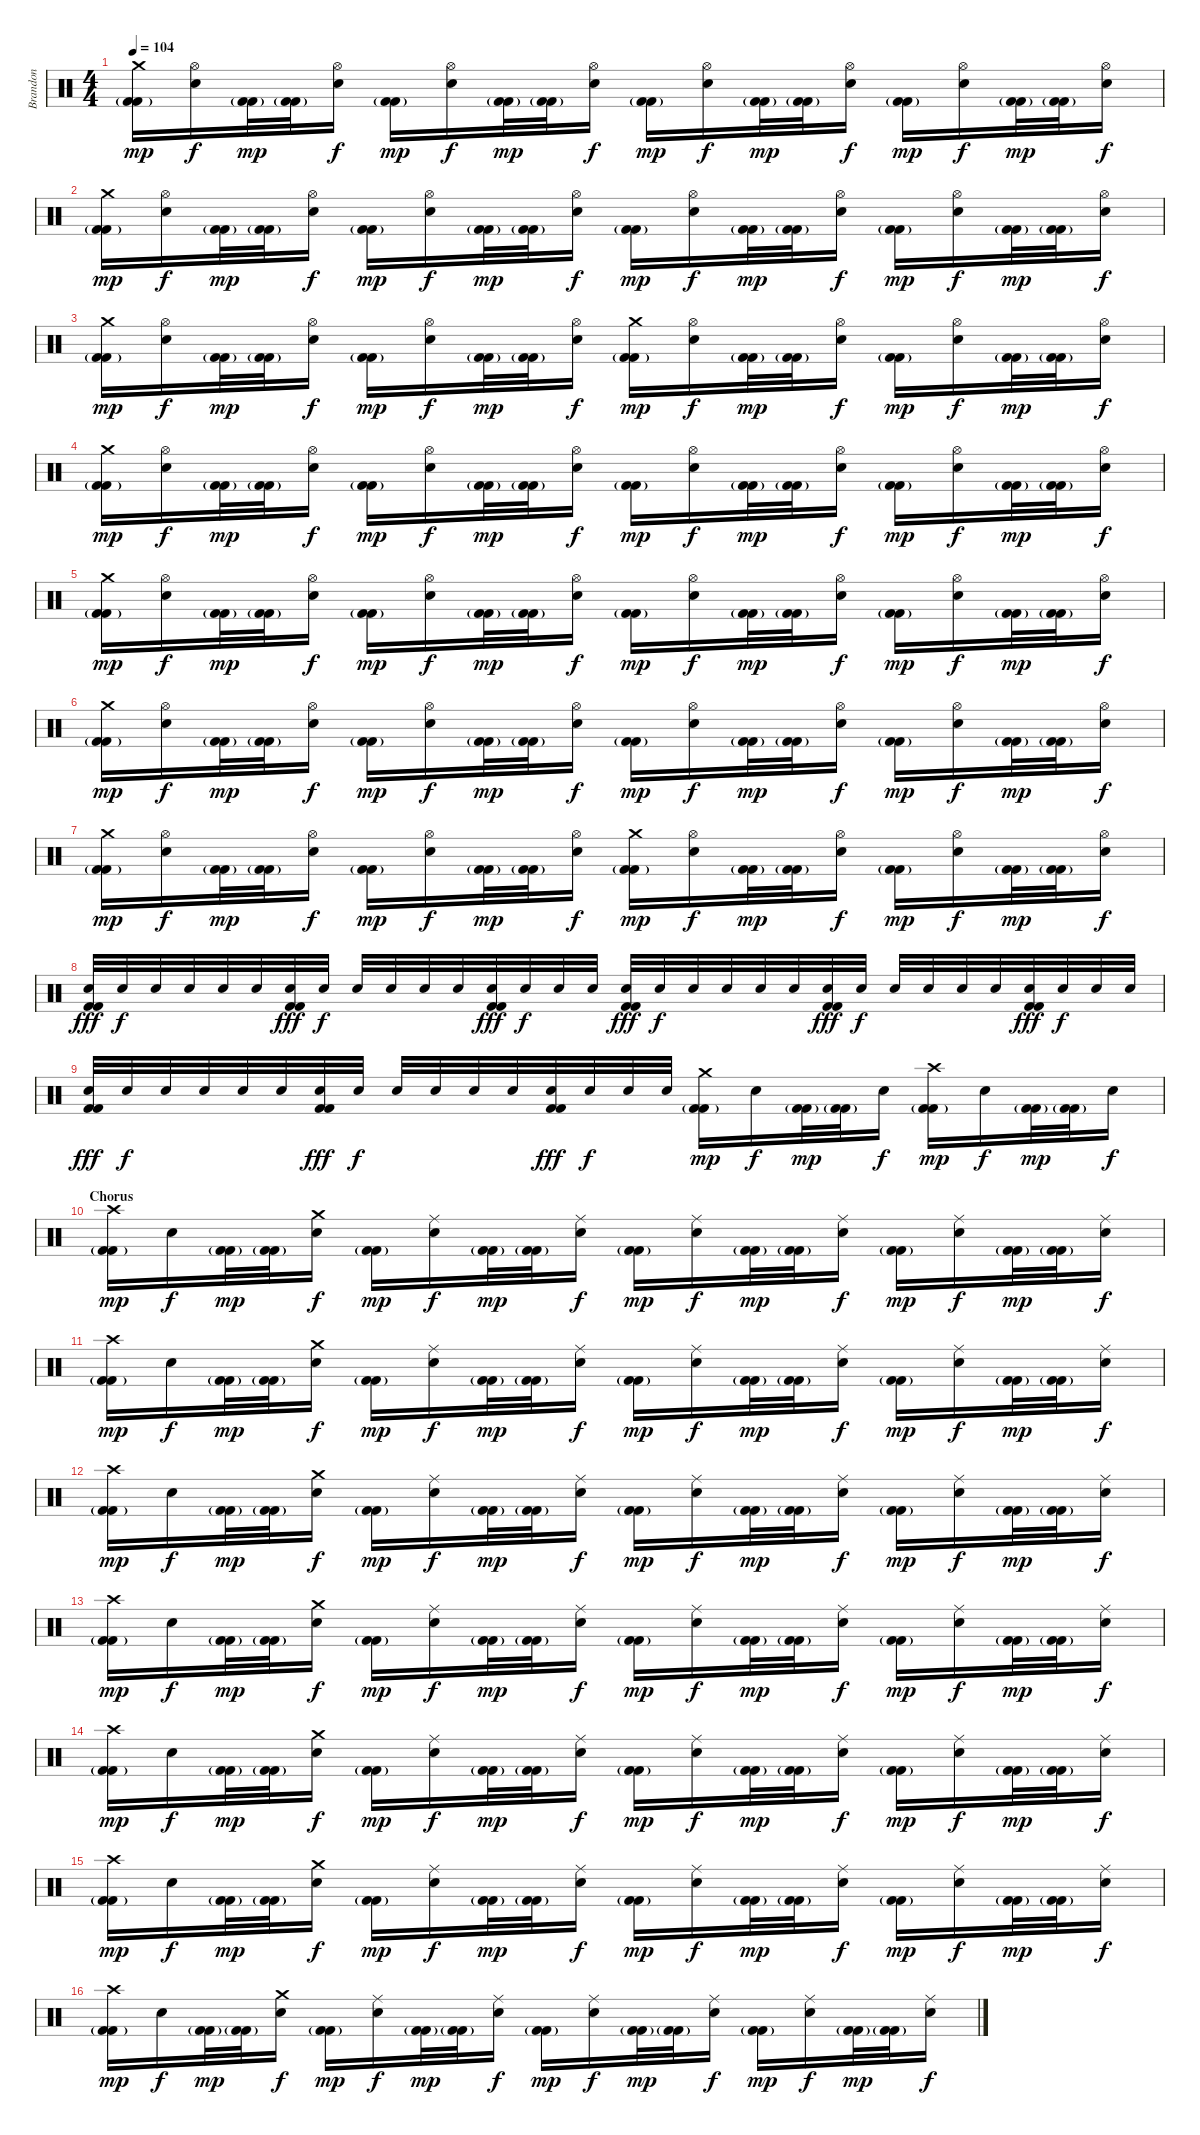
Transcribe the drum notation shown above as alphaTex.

\track ("Brandon" "Brandon") {instrument percussion}
\staff {score}
\articulation defaults
\ts (4 4)
\tempo 104
\clef neutral
\ks c
("Crash medium (hit)" "Kick (hit) 2"{g} "Kick (hit) 2").16{dy mp} ("Hi-Hat (open)" "Electric Snare (hit)").16{dy f} ("Kick (hit) 2"{g} "Kick (hit) 2").32{dy mp} ("Kick (hit) 2"{g} "Kick (hit) 2").32 ("Hi-Hat (open)" "Electric Snare (hit)").16{dy f} ("Kick (hit) 2"{g} "Kick (hit) 2").16{dy mp} ("Hi-Hat (open)" "Electric Snare (hit)").16{dy f} ("Kick (hit) 2"{g} "Kick (hit) 2").32{dy mp} ("Kick (hit) 2"{g} "Kick (hit) 2").32 ("Hi-Hat (open)" "Electric Snare (hit)").16{dy f} ("Kick (hit) 2"{g} "Kick (hit) 2").16{dy mp} ("Hi-Hat (open)" "Electric Snare (hit)").16{dy f} ("Kick (hit) 2"{g} "Kick (hit) 2").32{dy mp} ("Kick (hit) 2"{g} "Kick (hit) 2").32 ("Hi-Hat (open)" "Electric Snare (hit)").16{dy f} ("Kick (hit) 2"{g} "Kick (hit) 2").16{dy mp} ("Hi-Hat (open)" "Electric Snare (hit)").16{dy f} ("Kick (hit) 2"{g} "Kick (hit) 2").32{dy mp} ("Kick (hit) 2"{g} "Kick (hit) 2").32 ("Hi-Hat (open)" "Electric Snare (hit)").16{dy f} |
("Crash medium (hit)" "Kick (hit) 2"{g} "Kick (hit) 2").16{dy mp} ("Hi-Hat (open)" "Electric Snare (hit)").16{dy f} ("Kick (hit) 2"{g} "Kick (hit) 2").32{dy mp} ("Kick (hit) 2"{g} "Kick (hit) 2").32 ("Hi-Hat (open)" "Electric Snare (hit)").16{dy f} ("Kick (hit) 2"{g} "Kick (hit) 2").16{dy mp} ("Hi-Hat (open)" "Electric Snare (hit)").16{dy f} ("Kick (hit) 2"{g} "Kick (hit) 2").32{dy mp} ("Kick (hit) 2"{g} "Kick (hit) 2").32 ("Hi-Hat (open)" "Electric Snare (hit)").16{dy f} ("Kick (hit) 2"{g} "Kick (hit) 2").16{dy mp} ("Hi-Hat (open)" "Electric Snare (hit)").16{dy f} ("Kick (hit) 2"{g} "Kick (hit) 2").32{dy mp} ("Kick (hit) 2"{g} "Kick (hit) 2").32 ("Hi-Hat (open)" "Electric Snare (hit)").16{dy f} ("Kick (hit) 2"{g} "Kick (hit) 2").16{dy mp} ("Hi-Hat (open)" "Electric Snare (hit)").16{dy f} ("Kick (hit) 2"{g} "Kick (hit) 2").32{dy mp} ("Kick (hit) 2"{g} "Kick (hit) 2").32 ("Hi-Hat (open)" "Electric Snare (hit)").16{dy f} |
("Crash medium (hit)" "Kick (hit) 2"{g} "Kick (hit) 2").16{dy mp} ("Hi-Hat (open)" "Electric Snare (hit)").16{dy f} ("Kick (hit) 2"{g} "Kick (hit) 2").32{dy mp} ("Kick (hit) 2"{g} "Kick (hit) 2").32 ("Hi-Hat (open)" "Electric Snare (hit)").16{dy f} ("Kick (hit) 2"{g} "Kick (hit) 2").16{dy mp} ("Hi-Hat (open)" "Electric Snare (hit)").16{dy f} ("Kick (hit) 2"{g} "Kick (hit) 2").32{dy mp} ("Kick (hit) 2"{g} "Kick (hit) 2").32 ("Hi-Hat (open)" "Electric Snare (hit)").16{dy f} ("Crash medium (hit)" "Kick (hit) 2"{g} "Kick (hit) 2").16{dy mp} ("Hi-Hat (open)" "Electric Snare (hit)").16{dy f} ("Kick (hit) 2"{g} "Kick (hit) 2").32{dy mp} ("Kick (hit) 2"{g} "Kick (hit) 2").32 ("Hi-Hat (open)" "Electric Snare (hit)").16{dy f} ("Kick (hit) 2"{g} "Kick (hit) 2").16{dy mp} ("Hi-Hat (open)" "Electric Snare (hit)").16{dy f} ("Kick (hit) 2"{g} "Kick (hit) 2").32{dy mp} ("Kick (hit) 2"{g} "Kick (hit) 2").32 ("Hi-Hat (open)" "Electric Snare (hit)").16{dy f} |
("Crash medium (hit)" "Kick (hit) 2"{g} "Kick (hit) 2").16{dy mp} ("Hi-Hat (open)" "Electric Snare (hit)").16{dy f} ("Kick (hit) 2"{g} "Kick (hit) 2").32{dy mp} ("Kick (hit) 2"{g} "Kick (hit) 2").32 ("Hi-Hat (open)" "Electric Snare (hit)").16{dy f} ("Kick (hit) 2"{g} "Kick (hit) 2").16{dy mp} ("Hi-Hat (open)" "Electric Snare (hit)").16{dy f} ("Kick (hit) 2"{g} "Kick (hit) 2").32{dy mp} ("Kick (hit) 2"{g} "Kick (hit) 2").32 ("Hi-Hat (open)" "Electric Snare (hit)").16{dy f} ("Kick (hit) 2"{g} "Kick (hit) 2").16{dy mp} ("Hi-Hat (open)" "Electric Snare (hit)").16{dy f} ("Kick (hit) 2"{g} "Kick (hit) 2").32{dy mp} ("Kick (hit) 2"{g} "Kick (hit) 2").32 ("Hi-Hat (open)" "Electric Snare (hit)").16{dy f} ("Kick (hit) 2"{g} "Kick (hit) 2").16{dy mp} ("Hi-Hat (open)" "Electric Snare (hit)").16{dy f} ("Kick (hit) 2"{g} "Kick (hit) 2").32{dy mp} ("Kick (hit) 2"{g} "Kick (hit) 2").32 ("Hi-Hat (open)" "Electric Snare (hit)").16{dy f} |
("Crash medium (hit)" "Kick (hit) 2"{g} "Kick (hit) 2").16{dy mp} ("Hi-Hat (open)" "Electric Snare (hit)").16{dy f} ("Kick (hit) 2"{g} "Kick (hit) 2").32{dy mp} ("Kick (hit) 2"{g} "Kick (hit) 2").32 ("Hi-Hat (open)" "Electric Snare (hit)").16{dy f} ("Kick (hit) 2"{g} "Kick (hit) 2").16{dy mp} ("Hi-Hat (open)" "Electric Snare (hit)").16{dy f} ("Kick (hit) 2"{g} "Kick (hit) 2").32{dy mp} ("Kick (hit) 2"{g} "Kick (hit) 2").32 ("Hi-Hat (open)" "Electric Snare (hit)").16{dy f} ("Kick (hit) 2"{g} "Kick (hit) 2").16{dy mp} ("Hi-Hat (open)" "Electric Snare (hit)").16{dy f} ("Kick (hit) 2"{g} "Kick (hit) 2").32{dy mp} ("Kick (hit) 2"{g} "Kick (hit) 2").32 ("Hi-Hat (open)" "Electric Snare (hit)").16{dy f} ("Kick (hit) 2"{g} "Kick (hit) 2").16{dy mp} ("Hi-Hat (open)" "Electric Snare (hit)").16{dy f} ("Kick (hit) 2"{g} "Kick (hit) 2").32{dy mp} ("Kick (hit) 2"{g} "Kick (hit) 2").32 ("Hi-Hat (open)" "Electric Snare (hit)").16{dy f} |
("Crash medium (hit)" "Kick (hit) 2"{g} "Kick (hit) 2").16{dy mp} ("Hi-Hat (open)" "Electric Snare (hit)").16{dy f} ("Kick (hit) 2"{g} "Kick (hit) 2").32{dy mp} ("Kick (hit) 2"{g} "Kick (hit) 2").32 ("Hi-Hat (open)" "Electric Snare (hit)").16{dy f} ("Kick (hit) 2"{g} "Kick (hit) 2").16{dy mp} ("Hi-Hat (open)" "Electric Snare (hit)").16{dy f} ("Kick (hit) 2"{g} "Kick (hit) 2").32{dy mp} ("Kick (hit) 2"{g} "Kick (hit) 2").32 ("Hi-Hat (open)" "Electric Snare (hit)").16{dy f} ("Kick (hit) 2"{g} "Kick (hit) 2").16{dy mp} ("Hi-Hat (open)" "Electric Snare (hit)").16{dy f} ("Kick (hit) 2"{g} "Kick (hit) 2").32{dy mp} ("Kick (hit) 2"{g} "Kick (hit) 2").32 ("Hi-Hat (open)" "Electric Snare (hit)").16{dy f} ("Kick (hit) 2"{g} "Kick (hit) 2").16{dy mp} ("Hi-Hat (open)" "Electric Snare (hit)").16{dy f} ("Kick (hit) 2"{g} "Kick (hit) 2").32{dy mp} ("Kick (hit) 2"{g} "Kick (hit) 2").32 ("Hi-Hat (open)" "Electric Snare (hit)").16{dy f} |
("Crash medium (hit)" "Kick (hit) 2"{g} "Kick (hit) 2").16{dy mp} ("Hi-Hat (open)" "Electric Snare (hit)").16{dy f} ("Kick (hit) 2"{g} "Kick (hit) 2").32{dy mp} ("Kick (hit) 2"{g} "Kick (hit) 2").32 ("Hi-Hat (open)" "Electric Snare (hit)").16{dy f} ("Kick (hit) 2"{g} "Kick (hit) 2").16{dy mp} ("Hi-Hat (open)" "Electric Snare (hit)").16{dy f} ("Kick (hit) 2"{g} "Kick (hit) 2").32{dy mp} ("Kick (hit) 2"{g} "Kick (hit) 2").32 ("Hi-Hat (open)" "Electric Snare (hit)").16{dy f} ("Crash medium (hit)" "Kick (hit) 2"{g} "Kick (hit) 2").16{dy mp} ("Hi-Hat (open)" "Electric Snare (hit)").16{dy f} ("Kick (hit) 2"{g} "Kick (hit) 2").32{dy mp} ("Kick (hit) 2"{g} "Kick (hit) 2").32 ("Hi-Hat (open)" "Electric Snare (hit)").16{dy f} ("Kick (hit) 2"{g} "Kick (hit) 2").16{dy mp} ("Hi-Hat (open)" "Electric Snare (hit)").16{dy f} ("Kick (hit) 2"{g} "Kick (hit) 2").32{dy mp} ("Kick (hit) 2"{g} "Kick (hit) 2").32 ("Hi-Hat (open)" "Electric Snare (hit)").16{dy f} |
("Electric Snare (hit)" "Kick (hit) 2" "Kick (hit) 2").32{dy fff} "Electric Snare (hit)".32{dy f} "Electric Snare (hit)".32 "Electric Snare (hit)".32 "Electric Snare (hit)".32 "Electric Snare (hit)".32 ("Electric Snare (hit)" "Kick (hit) 2" "Kick (hit) 2").32{dy fff} "Electric Snare (hit)".32{dy f} "Electric Snare (hit)".32 "Electric Snare (hit)".32 "Electric Snare (hit)".32 "Electric Snare (hit)".32 ("Electric Snare (hit)" "Kick (hit) 2" "Kick (hit) 2").32{dy fff} "Electric Snare (hit)".32{dy f} "Electric Snare (hit)".32 "Electric Snare (hit)".32 ("Electric Snare (hit)" "Kick (hit) 2" "Kick (hit) 2").32{dy fff} "Electric Snare (hit)".32{dy f} "Electric Snare (hit)".32 "Electric Snare (hit)".32 "Electric Snare (hit)".32 "Electric Snare (hit)".32 ("Electric Snare (hit)" "Kick (hit) 2" "Kick (hit) 2").32{dy fff} "Electric Snare (hit)".32{dy f} "Electric Snare (hit)".32 "Electric Snare (hit)".32 "Electric Snare (hit)".32 "Electric Snare (hit)".32 ("Electric Snare (hit)" "Kick (hit) 2" "Kick (hit) 2").32{dy fff} "Electric Snare (hit)".32{dy f} "Electric Snare (hit)".32 "Electric Snare (hit)".32 |
("Electric Snare (hit)" "Kick (hit) 2" "Kick (hit) 2").32{dy fff} "Electric Snare (hit)".32{dy f} "Electric Snare (hit)".32 "Electric Snare (hit)".32 "Electric Snare (hit)".32 "Electric Snare (hit)".32 ("Electric Snare (hit)" "Kick (hit) 2" "Kick (hit) 2").32{dy fff} "Electric Snare (hit)".32{dy f} "Electric Snare (hit)".32 "Electric Snare (hit)".32 "Electric Snare (hit)".32 "Electric Snare (hit)".32 ("Electric Snare (hit)" "Kick (hit) 2" "Kick (hit) 2").32{dy fff} "Electric Snare (hit)".32{dy f} "Electric Snare (hit)".32 "Electric Snare (hit)".32 ("Crash medium (hit)" "Kick (hit) 2"{g} "Kick (hit) 2").16{dy mp} "Electric Snare (hit)".16{dy f} ("Kick (hit) 2"{g} "Kick (hit) 2").32{dy mp} ("Kick (hit) 2"{g} "Kick (hit) 2").32 "Electric Snare (hit)".16{dy f} ("Crash high (hit)" "Kick (hit) 2"{g} "Kick (hit) 2").16{dy mp} "Electric Snare (hit)".16{dy f} ("Kick (hit) 2"{g} "Kick (hit) 2").32{dy mp} ("Kick (hit) 2"{g} "Kick (hit) 2").32 "Electric Snare (hit)".16{dy f} |
\section ("" "Chorus")
("Crash high (hit)" "Kick (hit) 2"{g} "Kick (hit) 2").16{dy mp} "Electric Snare (hit)".16{dy f} ("Kick (hit) 2"{g} "Kick (hit) 2").32{dy mp} ("Kick (hit) 2"{g} "Kick (hit) 2").32 ("Crash medium (hit)" "Electric Snare (hit)").16{dy f} ("Kick (hit) 2"{g} "Kick (hit) 2").16{dy mp} ("Ride (middle)" "Electric Snare (hit)").16{dy f} ("Kick (hit) 2"{g} "Kick (hit) 2").32{dy mp} ("Kick (hit) 2"{g} "Kick (hit) 2").32 ("Ride (middle)" "Electric Snare (hit)").16{dy f} ("Kick (hit) 2"{g} "Kick (hit) 2").16{dy mp} ("Ride (middle)" "Electric Snare (hit)").16{dy f} ("Kick (hit) 2"{g} "Kick (hit) 2").32{dy mp} ("Kick (hit) 2"{g} "Kick (hit) 2").32 ("Ride (middle)" "Electric Snare (hit)").16{dy f} ("Kick (hit) 2"{g} "Kick (hit) 2").16{dy mp} ("Ride (middle)" "Electric Snare (hit)").16{dy f} ("Kick (hit) 2"{g} "Kick (hit) 2").32{dy mp} ("Kick (hit) 2"{g} "Kick (hit) 2").32 ("Ride (middle)" "Electric Snare (hit)").16{dy f} |
("Crash high (hit)" "Kick (hit) 2"{g} "Kick (hit) 2").16{dy mp} "Electric Snare (hit)".16{dy f} ("Kick (hit) 2"{g} "Kick (hit) 2").32{dy mp} ("Kick (hit) 2"{g} "Kick (hit) 2").32 ("Crash medium (hit)" "Electric Snare (hit)").16{dy f} ("Kick (hit) 2"{g} "Kick (hit) 2").16{dy mp} ("Ride (middle)" "Electric Snare (hit)").16{dy f} ("Kick (hit) 2"{g} "Kick (hit) 2").32{dy mp} ("Kick (hit) 2"{g} "Kick (hit) 2").32 ("Ride (middle)" "Electric Snare (hit)").16{dy f} ("Kick (hit) 2"{g} "Kick (hit) 2").16{dy mp} ("Ride (middle)" "Electric Snare (hit)").16{dy f} ("Kick (hit) 2"{g} "Kick (hit) 2").32{dy mp} ("Kick (hit) 2"{g} "Kick (hit) 2").32 ("Ride (middle)" "Electric Snare (hit)").16{dy f} ("Kick (hit) 2"{g} "Kick (hit) 2").16{dy mp} ("Ride (middle)" "Electric Snare (hit)").16{dy f} ("Kick (hit) 2"{g} "Kick (hit) 2").32{dy mp} ("Kick (hit) 2"{g} "Kick (hit) 2").32 ("Ride (middle)" "Electric Snare (hit)").16{dy f} |
("Crash high (hit)" "Kick (hit) 2"{g} "Kick (hit) 2").16{dy mp} "Electric Snare (hit)".16{dy f} ("Kick (hit) 2"{g} "Kick (hit) 2").32{dy mp} ("Kick (hit) 2"{g} "Kick (hit) 2").32 ("Crash medium (hit)" "Electric Snare (hit)").16{dy f} ("Kick (hit) 2"{g} "Kick (hit) 2").16{dy mp} ("Ride (middle)" "Electric Snare (hit)").16{dy f} ("Kick (hit) 2"{g} "Kick (hit) 2").32{dy mp} ("Kick (hit) 2"{g} "Kick (hit) 2").32 ("Ride (middle)" "Electric Snare (hit)").16{dy f} ("Kick (hit) 2"{g} "Kick (hit) 2").16{dy mp} ("Ride (middle)" "Electric Snare (hit)").16{dy f} ("Kick (hit) 2"{g} "Kick (hit) 2").32{dy mp} ("Kick (hit) 2"{g} "Kick (hit) 2").32 ("Ride (middle)" "Electric Snare (hit)").16{dy f} ("Kick (hit) 2"{g} "Kick (hit) 2").16{dy mp} ("Ride (middle)" "Electric Snare (hit)").16{dy f} ("Kick (hit) 2"{g} "Kick (hit) 2").32{dy mp} ("Kick (hit) 2"{g} "Kick (hit) 2").32 ("Ride (middle)" "Electric Snare (hit)").16{dy f} |
("Crash high (hit)" "Kick (hit) 2"{g} "Kick (hit) 2").16{dy mp} "Electric Snare (hit)".16{dy f} ("Kick (hit) 2"{g} "Kick (hit) 2").32{dy mp} ("Kick (hit) 2"{g} "Kick (hit) 2").32 ("Crash medium (hit)" "Electric Snare (hit)").16{dy f} ("Kick (hit) 2"{g} "Kick (hit) 2").16{dy mp} ("Ride (middle)" "Electric Snare (hit)").16{dy f} ("Kick (hit) 2"{g} "Kick (hit) 2").32{dy mp} ("Kick (hit) 2"{g} "Kick (hit) 2").32 ("Ride (middle)" "Electric Snare (hit)").16{dy f} ("Kick (hit) 2"{g} "Kick (hit) 2").16{dy mp} ("Ride (middle)" "Electric Snare (hit)").16{dy f} ("Kick (hit) 2"{g} "Kick (hit) 2").32{dy mp} ("Kick (hit) 2"{g} "Kick (hit) 2").32 ("Ride (middle)" "Electric Snare (hit)").16{dy f} ("Kick (hit) 2"{g} "Kick (hit) 2").16{dy mp} ("Ride (middle)" "Electric Snare (hit)").16{dy f} ("Kick (hit) 2"{g} "Kick (hit) 2").32{dy mp} ("Kick (hit) 2"{g} "Kick (hit) 2").32 ("Ride (middle)" "Electric Snare (hit)").16{dy f} |
("Crash high (hit)" "Kick (hit) 2"{g} "Kick (hit) 2").16{dy mp} "Electric Snare (hit)".16{dy f} ("Kick (hit) 2"{g} "Kick (hit) 2").32{dy mp} ("Kick (hit) 2"{g} "Kick (hit) 2").32 ("Crash medium (hit)" "Electric Snare (hit)").16{dy f} ("Kick (hit) 2"{g} "Kick (hit) 2").16{dy mp} ("Ride (middle)" "Electric Snare (hit)").16{dy f} ("Kick (hit) 2"{g} "Kick (hit) 2").32{dy mp} ("Kick (hit) 2"{g} "Kick (hit) 2").32 ("Ride (middle)" "Electric Snare (hit)").16{dy f} ("Kick (hit) 2"{g} "Kick (hit) 2").16{dy mp} ("Ride (middle)" "Electric Snare (hit)").16{dy f} ("Kick (hit) 2"{g} "Kick (hit) 2").32{dy mp} ("Kick (hit) 2"{g} "Kick (hit) 2").32 ("Ride (middle)" "Electric Snare (hit)").16{dy f} ("Kick (hit) 2"{g} "Kick (hit) 2").16{dy mp} ("Ride (middle)" "Electric Snare (hit)").16{dy f} ("Kick (hit) 2"{g} "Kick (hit) 2").32{dy mp} ("Kick (hit) 2"{g} "Kick (hit) 2").32 ("Ride (middle)" "Electric Snare (hit)").16{dy f} |
("Crash high (hit)" "Kick (hit) 2"{g} "Kick (hit) 2").16{dy mp} "Electric Snare (hit)".16{dy f} ("Kick (hit) 2"{g} "Kick (hit) 2").32{dy mp} ("Kick (hit) 2"{g} "Kick (hit) 2").32 ("Crash medium (hit)" "Electric Snare (hit)").16{dy f} ("Kick (hit) 2"{g} "Kick (hit) 2").16{dy mp} ("Ride (middle)" "Electric Snare (hit)").16{dy f} ("Kick (hit) 2"{g} "Kick (hit) 2").32{dy mp} ("Kick (hit) 2"{g} "Kick (hit) 2").32 ("Ride (middle)" "Electric Snare (hit)").16{dy f} ("Kick (hit) 2"{g} "Kick (hit) 2").16{dy mp} ("Ride (middle)" "Electric Snare (hit)").16{dy f} ("Kick (hit) 2"{g} "Kick (hit) 2").32{dy mp} ("Kick (hit) 2"{g} "Kick (hit) 2").32 ("Ride (middle)" "Electric Snare (hit)").16{dy f} ("Kick (hit) 2"{g} "Kick (hit) 2").16{dy mp} ("Ride (middle)" "Electric Snare (hit)").16{dy f} ("Kick (hit) 2"{g} "Kick (hit) 2").32{dy mp} ("Kick (hit) 2"{g} "Kick (hit) 2").32 ("Ride (middle)" "Electric Snare (hit)").16{dy f} |
("Crash high (hit)" "Kick (hit) 2"{g} "Kick (hit) 2").16{dy mp} "Electric Snare (hit)".16{dy f} ("Kick (hit) 2"{g} "Kick (hit) 2").32{dy mp} ("Kick (hit) 2"{g} "Kick (hit) 2").32 ("Crash medium (hit)" "Electric Snare (hit)").16{dy f} ("Kick (hit) 2"{g} "Kick (hit) 2").16{dy mp} ("Ride (middle)" "Electric Snare (hit)").16{dy f} ("Kick (hit) 2"{g} "Kick (hit) 2").32{dy mp} ("Kick (hit) 2"{g} "Kick (hit) 2").32 ("Ride (middle)" "Electric Snare (hit)").16{dy f} ("Kick (hit) 2"{g} "Kick (hit) 2").16{dy mp} ("Ride (middle)" "Electric Snare (hit)").16{dy f} ("Kick (hit) 2"{g} "Kick (hit) 2").32{dy mp} ("Kick (hit) 2"{g} "Kick (hit) 2").32 ("Ride (middle)" "Electric Snare (hit)").16{dy f} ("Kick (hit) 2"{g} "Kick (hit) 2").16{dy mp} ("Ride (middle)" "Electric Snare (hit)").16{dy f} ("Kick (hit) 2"{g} "Kick (hit) 2").32{dy mp} ("Kick (hit) 2"{g} "Kick (hit) 2").32 ("Ride (middle)" "Electric Snare (hit)").16{dy f}
